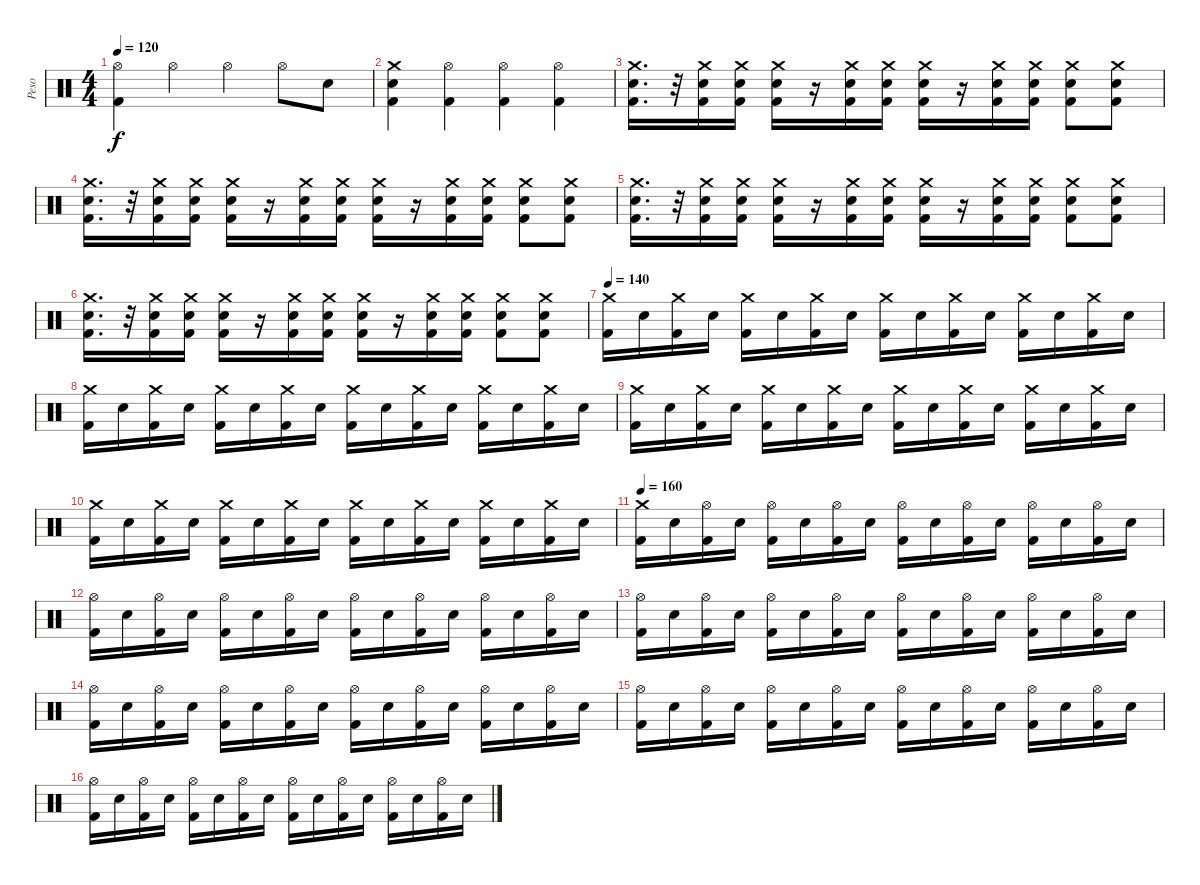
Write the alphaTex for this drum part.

\track ("Peso" "Peso") {instrument percussion}
\staff {score}
\articulation defaults
\ts (4 4)
\tempo 120
\clef neutral
\ks c
("Hi-Hat (open)" "Kick (hit) 2").4{dy f} "Hi-Hat (open)".4 "Hi-Hat (open)".4 "Hi-Hat (open)".8 "Electric Snare (hit)".8 |
("Crash medium (hit)" "Electric Snare (hit)" "Kick (hit) 2").4 ("Hi-Hat (open)" "Kick (hit) 2").4 ("Hi-Hat (open)" "Kick (hit) 2").4 ("Hi-Hat (open)" "Kick (hit) 2").4 |
("Crash medium (hit)" "Electric Snare (hit)" "Kick (hit) 2").16{d} r.32 ("Crash medium (hit)" "Electric Snare (hit)" "Kick (hit) 2").16 ("Crash medium (hit)" "Electric Snare (hit)" "Kick (hit) 2").16 ("Crash medium (hit)" "Electric Snare (hit)" "Kick (hit) 2").16 r.16 ("Crash medium (hit)" "Electric Snare (hit)" "Kick (hit) 2").16 ("Crash medium (hit)" "Electric Snare (hit)" "Kick (hit) 2").16 ("Crash medium (hit)" "Electric Snare (hit)" "Kick (hit) 2").16 r.16 ("Crash medium (hit)" "Electric Snare (hit)" "Kick (hit) 2").16 ("Crash medium (hit)" "Electric Snare (hit)" "Kick (hit) 2").16 ("Crash medium (hit)" "Electric Snare (hit)" "Kick (hit) 2").8 ("Crash medium (hit)" "Electric Snare (hit)" "Kick (hit) 2").8 |
("Crash medium (hit)" "Electric Snare (hit)" "Kick (hit) 2").16{d} r.32 ("Crash medium (hit)" "Electric Snare (hit)" "Kick (hit) 2").16 ("Crash medium (hit)" "Electric Snare (hit)" "Kick (hit) 2").16 ("Crash medium (hit)" "Electric Snare (hit)" "Kick (hit) 2").16 r.16 ("Crash medium (hit)" "Electric Snare (hit)" "Kick (hit) 2").16 ("Crash medium (hit)" "Electric Snare (hit)" "Kick (hit) 2").16 ("Crash medium (hit)" "Electric Snare (hit)" "Kick (hit) 2").16 r.16 ("Crash medium (hit)" "Electric Snare (hit)" "Kick (hit) 2").16 ("Crash medium (hit)" "Electric Snare (hit)" "Kick (hit) 2").16 ("Crash medium (hit)" "Electric Snare (hit)" "Kick (hit) 2").8 ("Crash medium (hit)" "Electric Snare (hit)" "Kick (hit) 2").8 |
("Crash medium (hit)" "Electric Snare (hit)" "Kick (hit) 2").16{d} r.32 ("Crash medium (hit)" "Electric Snare (hit)" "Kick (hit) 2").16 ("Crash medium (hit)" "Electric Snare (hit)" "Kick (hit) 2").16 ("Crash medium (hit)" "Electric Snare (hit)" "Kick (hit) 2").16 r.16 ("Crash medium (hit)" "Electric Snare (hit)" "Kick (hit) 2").16 ("Crash medium (hit)" "Electric Snare (hit)" "Kick (hit) 2").16 ("Crash medium (hit)" "Electric Snare (hit)" "Kick (hit) 2").16 r.16 ("Crash medium (hit)" "Electric Snare (hit)" "Kick (hit) 2").16 ("Crash medium (hit)" "Electric Snare (hit)" "Kick (hit) 2").16 ("Crash medium (hit)" "Electric Snare (hit)" "Kick (hit) 2").8 ("Crash medium (hit)" "Electric Snare (hit)" "Kick (hit) 2").8 |
("Crash medium (hit)" "Electric Snare (hit)" "Kick (hit) 2").16{d} r.32 ("Crash medium (hit)" "Electric Snare (hit)" "Kick (hit) 2").16 ("Crash medium (hit)" "Electric Snare (hit)" "Kick (hit) 2").16 ("Crash medium (hit)" "Electric Snare (hit)" "Kick (hit) 2").16 r.16 ("Crash medium (hit)" "Electric Snare (hit)" "Kick (hit) 2").16 ("Crash medium (hit)" "Electric Snare (hit)" "Kick (hit) 2").16 ("Crash medium (hit)" "Electric Snare (hit)" "Kick (hit) 2").16 r.16 ("Crash medium (hit)" "Electric Snare (hit)" "Kick (hit) 2").16 ("Crash medium (hit)" "Electric Snare (hit)" "Kick (hit) 2").16 ("Crash medium (hit)" "Electric Snare (hit)" "Kick (hit) 2").8 ("Crash medium (hit)" "Electric Snare (hit)" "Kick (hit) 2").8 |
\tempo 140
("Crash medium (hit)" "Kick (hit) 2").16 "Electric Snare (hit)".16 ("Crash medium (hit)" "Kick (hit) 2").16 "Electric Snare (hit)".16 ("Crash medium (hit)" "Kick (hit) 2").16 "Electric Snare (hit)".16 ("Crash medium (hit)" "Kick (hit) 2").16 "Electric Snare (hit)".16 ("Crash medium (hit)" "Kick (hit) 2").16 "Electric Snare (hit)".16 ("Crash medium (hit)" "Kick (hit) 2").16 "Electric Snare (hit)".16 ("Crash medium (hit)" "Kick (hit) 2").16 "Electric Snare (hit)".16 ("Crash medium (hit)" "Kick (hit) 2").16 "Electric Snare (hit)".16 |
("Crash medium (hit)" "Kick (hit) 2").16 "Electric Snare (hit)".16 ("Crash medium (hit)" "Kick (hit) 2").16 "Electric Snare (hit)".16 ("Crash medium (hit)" "Kick (hit) 2").16 "Electric Snare (hit)".16 ("Crash medium (hit)" "Kick (hit) 2").16 "Electric Snare (hit)".16 ("Crash medium (hit)" "Kick (hit) 2").16 "Electric Snare (hit)".16 ("Crash medium (hit)" "Kick (hit) 2").16 "Electric Snare (hit)".16 ("Crash medium (hit)" "Kick (hit) 2").16 "Electric Snare (hit)".16 ("Crash medium (hit)" "Kick (hit) 2").16 "Electric Snare (hit)".16 |
("Crash medium (hit)" "Kick (hit) 2").16 "Electric Snare (hit)".16 ("Crash medium (hit)" "Kick (hit) 2").16 "Electric Snare (hit)".16 ("Crash medium (hit)" "Kick (hit) 2").16 "Electric Snare (hit)".16 ("Crash medium (hit)" "Kick (hit) 2").16 "Electric Snare (hit)".16 ("Crash medium (hit)" "Kick (hit) 2").16 "Electric Snare (hit)".16 ("Crash medium (hit)" "Kick (hit) 2").16 "Electric Snare (hit)".16 ("Crash medium (hit)" "Kick (hit) 2").16 "Electric Snare (hit)".16 ("Crash medium (hit)" "Kick (hit) 2").16 "Electric Snare (hit)".16 |
("Crash medium (hit)" "Kick (hit) 2").16 "Electric Snare (hit)".16 ("Crash medium (hit)" "Kick (hit) 2").16 "Electric Snare (hit)".16 ("Crash medium (hit)" "Kick (hit) 2").16 "Electric Snare (hit)".16 ("Crash medium (hit)" "Kick (hit) 2").16 "Electric Snare (hit)".16 ("Crash medium (hit)" "Kick (hit) 2").16 "Electric Snare (hit)".16 ("Crash medium (hit)" "Kick (hit) 2").16 "Electric Snare (hit)".16 ("Crash medium (hit)" "Kick (hit) 2").16 "Electric Snare (hit)".16 ("Crash medium (hit)" "Kick (hit) 2").16 "Electric Snare (hit)".16 |
\tempo 160
("Crash medium (hit)" "Kick (hit) 2").16 "Electric Snare (hit)".16 ("Hi-Hat (open)" "Kick (hit) 2").16 "Electric Snare (hit)".16 ("Hi-Hat (open)" "Kick (hit) 2").16 "Electric Snare (hit)".16 ("Hi-Hat (open)" "Kick (hit) 2").16 "Electric Snare (hit)".16 ("Hi-Hat (open)" "Kick (hit) 2").16 "Electric Snare (hit)".16 ("Hi-Hat (open)" "Kick (hit) 2").16 "Electric Snare (hit)".16 ("Hi-Hat (open)" "Kick (hit) 2").16 "Electric Snare (hit)".16 ("Hi-Hat (open)" "Kick (hit) 2").16 "Electric Snare (hit)".16 |
("Hi-Hat (open)" "Kick (hit) 2").16 "Electric Snare (hit)".16 ("Hi-Hat (open)" "Kick (hit) 2").16 "Electric Snare (hit)".16 ("Hi-Hat (open)" "Kick (hit) 2").16 "Electric Snare (hit)".16 ("Hi-Hat (open)" "Kick (hit) 2").16 "Electric Snare (hit)".16 ("Hi-Hat (open)" "Kick (hit) 2").16 "Electric Snare (hit)".16 ("Hi-Hat (open)" "Kick (hit) 2").16 "Electric Snare (hit)".16 ("Hi-Hat (open)" "Kick (hit) 2").16 "Electric Snare (hit)".16 ("Hi-Hat (open)" "Kick (hit) 2").16 "Electric Snare (hit)".16 |
("Hi-Hat (open)" "Kick (hit) 2").16 "Electric Snare (hit)".16 ("Hi-Hat (open)" "Kick (hit) 2").16 "Electric Snare (hit)".16 ("Hi-Hat (open)" "Kick (hit) 2").16 "Electric Snare (hit)".16 ("Hi-Hat (open)" "Kick (hit) 2").16 "Electric Snare (hit)".16 ("Hi-Hat (open)" "Kick (hit) 2").16 "Electric Snare (hit)".16 ("Hi-Hat (open)" "Kick (hit) 2").16 "Electric Snare (hit)".16 ("Hi-Hat (open)" "Kick (hit) 2").16 "Electric Snare (hit)".16 ("Hi-Hat (open)" "Kick (hit) 2").16 "Electric Snare (hit)".16 |
("Hi-Hat (open)" "Kick (hit) 2").16 "Electric Snare (hit)".16 ("Hi-Hat (open)" "Kick (hit) 2").16 "Electric Snare (hit)".16 ("Hi-Hat (open)" "Kick (hit) 2").16 "Electric Snare (hit)".16 ("Hi-Hat (open)" "Kick (hit) 2").16 "Electric Snare (hit)".16 ("Hi-Hat (open)" "Kick (hit) 2").16 "Electric Snare (hit)".16 ("Hi-Hat (open)" "Kick (hit) 2").16 "Electric Snare (hit)".16 ("Hi-Hat (open)" "Kick (hit) 2").16 "Electric Snare (hit)".16 ("Hi-Hat (open)" "Kick (hit) 2").16 "Electric Snare (hit)".16 |
("Hi-Hat (open)" "Kick (hit) 2").16 "Electric Snare (hit)".16 ("Hi-Hat (open)" "Kick (hit) 2").16 "Electric Snare (hit)".16 ("Hi-Hat (open)" "Kick (hit) 2").16 "Electric Snare (hit)".16 ("Hi-Hat (open)" "Kick (hit) 2").16 "Electric Snare (hit)".16 ("Hi-Hat (open)" "Kick (hit) 2").16 "Electric Snare (hit)".16 ("Hi-Hat (open)" "Kick (hit) 2").16 "Electric Snare (hit)".16 ("Hi-Hat (open)" "Kick (hit) 2").16 "Electric Snare (hit)".16 ("Hi-Hat (open)" "Kick (hit) 2").16 "Electric Snare (hit)".16 |
("Hi-Hat (open)" "Kick (hit) 2").16 "Electric Snare (hit)".16 ("Hi-Hat (open)" "Kick (hit) 2").16 "Electric Snare (hit)".16 ("Hi-Hat (open)" "Kick (hit) 2").16 "Electric Snare (hit)".16 ("Hi-Hat (open)" "Kick (hit) 2").16 "Electric Snare (hit)".16 ("Hi-Hat (open)" "Kick (hit) 2").16 "Electric Snare (hit)".16 ("Hi-Hat (open)" "Kick (hit) 2").16 "Electric Snare (hit)".16 ("Hi-Hat (open)" "Kick (hit) 2").16 "Electric Snare (hit)".16 ("Hi-Hat (open)" "Kick (hit) 2").16 "Electric Snare (hit)".16
